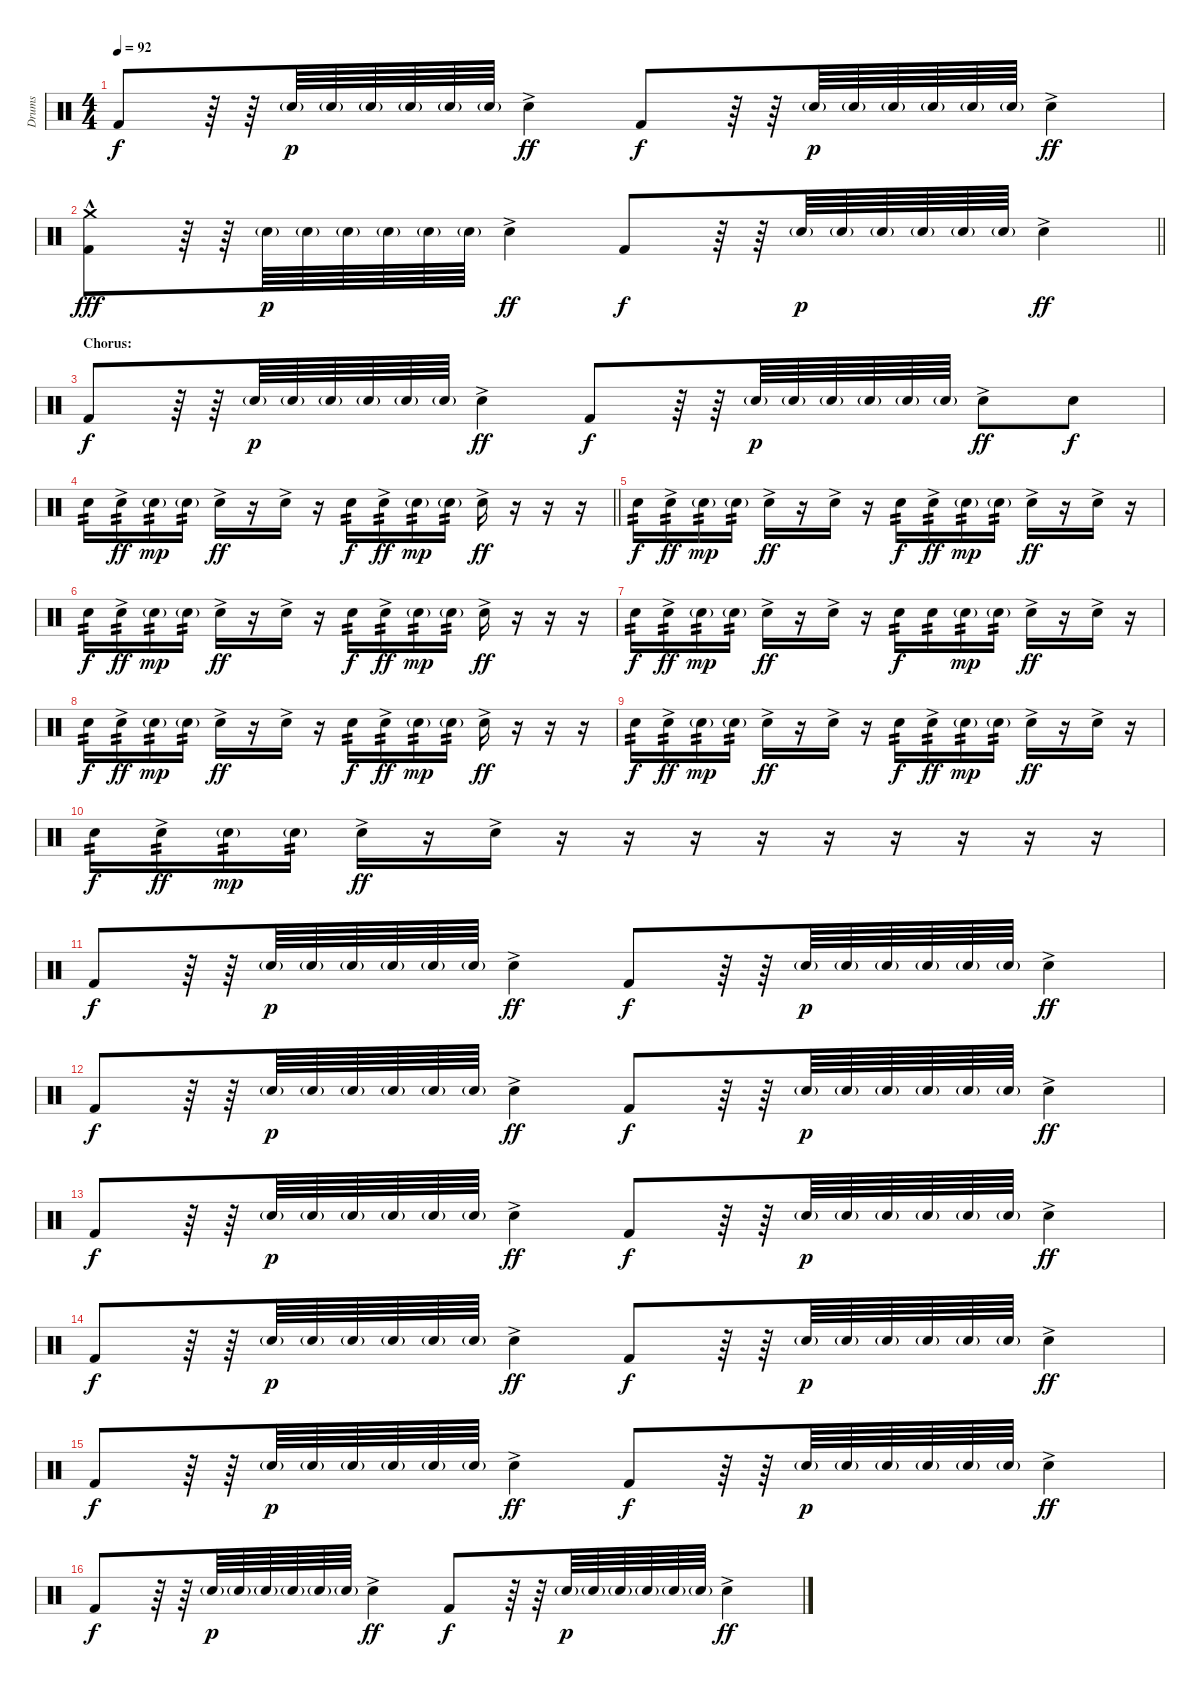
\track ("Drums" "Drums") {instrument percussion}
\staff {score}
\articulation defaults
\ts (4 4)
\tempo 92
\clef neutral
\ks c "Kick (hit) 2".8{dy f}
r.64 r.64 "Snare (hit) 2"{g}.64{dy p} "Snare (hit) 2"{g}.64 "Snare (hit) 2"{g}.64 "Snare (hit) 2"{g}.64 "Snare (hit) 2"{g}.64 "Snare (hit) 2"{g}.64 "Snare (hit) 2"{ac}.4{dy ff} "Kick (hit) 2".8{dy f} r.64 r.64 "Snare (hit) 2"{g}.64{dy p} "Snare (hit) 2"{g}.64 "Snare (hit) 2"{g}.64 "Snare (hit) 2"{g}.64 "Snare (hit) 2"{g}.64 "Snare (hit) 2"{g}.64 "Snare (hit) 2"{ac}.4{dy ff} |
\barLineRight lightlight
("Crash medium (hit)"{hac} "Kick (hit) 2").8{dy fff} r.64 r.64 "Snare (hit) 2"{g}.64{dy p} "Snare (hit) 2"{g}.64 "Snare (hit) 2"{g}.64 "Snare (hit) 2"{g}.64 "Snare (hit) 2"{g}.64 "Snare (hit) 2"{g}.64 "Snare (hit) 2"{ac}.4{dy ff} "Kick (hit) 2".8{dy f} r.64 r.64 "Snare (hit) 2"{g}.64{dy p} "Snare (hit) 2"{g}.64 "Snare (hit) 2"{g}.64 "Snare (hit) 2"{g}.64 "Snare (hit) 2"{g}.64 "Snare (hit) 2"{g}.64 "Snare (hit) 2"{ac}.4{dy ff} |
\section ("" "Chorus:")
"Kick (hit) 2".8{dy f} r.64 r.64 "Snare (hit) 2"{g}.64{dy p} "Snare (hit) 2"{g}.64 "Snare (hit) 2"{g}.64 "Snare (hit) 2"{g}.64 "Snare (hit) 2"{g}.64 "Snare (hit) 2"{g}.64 "Snare (hit) 2"{ac}.4{dy ff} "Kick (hit) 2".8{dy f} r.64 r.64 "Snare (hit) 2"{g}.64{dy p} "Snare (hit) 2"{g}.64 "Snare (hit) 2"{g}.64 "Snare (hit) 2"{g}.64 "Snare (hit) 2"{g}.64 "Snare (hit) 2"{g}.64 "Snare (hit) 2"{ac}.8{dy ff} "Snare (hit) 2".8{dy f} |
\barLineRight lightlight "Snare (hit) 2".16{tp 2} "Snare (hit) 2"{ac}.16{tp 2 dy ff} "Snare (hit) 2"{g}.16{tp 2 dy mp} "Snare (hit) 2"{g}.16{tp 2} "Snare (hit) 2"{ac}.16{dy ff}
r.16 "Snare (hit) 2"{ac}.16 r.16 "Snare (hit) 2".16{tp 2 dy f} "Snare (hit) 2"{ac}.16{tp 2 dy ff} "Snare (hit) 2"{g}.16{tp 2 dy mp} "Snare (hit) 2"{g}.16{tp 2} "Snare (hit) 2"{ac}.16{dy ff} r.16 r.16 r.16 |
"Snare (hit) 2".16{tp 2 dy f} "Snare (hit) 2"{ac}.16{tp 2 dy ff} "Snare (hit) 2"{g}.16{tp 2 dy mp} "Snare (hit) 2"{g}.16{tp 2} "Snare (hit) 2"{ac}.16{dy ff} r.16 "Snare (hit) 2"{ac}.16 r.16 "Snare (hit) 2".16{tp 2 dy f} "Snare (hit) 2"{ac}.16{tp 2 dy ff} "Snare (hit) 2"{g}.16{tp 2 dy mp} "Snare (hit) 2"{g}.16{tp 2} "Snare (hit) 2"{ac}.16{dy ff} r.16 "Snare (hit) 2"{ac}.16 r.16 |
"Snare (hit) 2".16{tp 2 dy f} "Snare (hit) 2"{ac}.16{tp 2 dy ff} "Snare (hit) 2"{g}.16{tp 2 dy mp} "Snare (hit) 2"{g}.16{tp 2} "Snare (hit) 2"{ac}.16{dy ff} r.16 "Snare (hit) 2"{ac}.16 r.16 "Snare (hit) 2".16{tp 2 dy f} "Snare (hit) 2"{ac}.16{tp 2 dy ff} "Snare (hit) 2"{g}.16{tp 2 dy mp} "Snare (hit) 2"{g}.16{tp 2} "Snare (hit) 2"{ac}.16{dy ff} r.16 r.16 r.16 |
"Snare (hit) 2".16{tp 2 dy f} "Snare (hit) 2"{ac}.16{tp 2 dy ff} "Snare (hit) 2"{g}.16{tp 2 dy mp} "Snare (hit) 2"{g}.16{tp 2} "Snare (hit) 2"{ac}.16{dy ff} r.16 "Snare (hit) 2"{ac}.16 r.16 "Snare (hit) 2".16{tp 2 dy f} "Snare (hit) 2".16{tp 2} "Snare (hit) 2"{g}.16{tp 2 dy mp} "Snare (hit) 2"{g}.16{tp 2} "Snare (hit) 2"{ac}.16{dy ff} r.16 "Snare (hit) 2"{ac}.16 r.16 |
"Snare (hit) 2".16{tp 2 dy f} "Snare (hit) 2"{ac}.16{tp 2 dy ff} "Snare (hit) 2"{g}.16{tp 2 dy mp} "Snare (hit) 2"{g}.16{tp 2} "Snare (hit) 2"{ac}.16{dy ff} r.16 "Snare (hit) 2"{ac}.16 r.16 "Snare (hit) 2".16{tp 2 dy f} "Snare (hit) 2"{ac}.16{tp 2 dy ff} "Snare (hit) 2"{g}.16{tp 2 dy mp} "Snare (hit) 2"{g}.16{tp 2} "Snare (hit) 2"{ac}.16{dy ff} r.16 r.16 r.16 |
"Snare (hit) 2".16{tp 2 dy f} "Snare (hit) 2"{ac}.16{tp 2 dy ff} "Snare (hit) 2"{g}.16{tp 2 dy mp} "Snare (hit) 2"{g}.16{tp 2} "Snare (hit) 2"{ac}.16{dy ff} r.16 "Snare (hit) 2"{ac}.16 r.16 "Snare (hit) 2".16{tp 2 dy f} "Snare (hit) 2"{ac}.16{tp 2 dy ff} "Snare (hit) 2"{g}.16{tp 2 dy mp} "Snare (hit) 2"{g}.16{tp 2} "Snare (hit) 2"{ac}.16{dy ff} r.16 "Snare (hit) 2"{ac}.16 r.16 |
"Snare (hit) 2".16{tp 2 dy f} "Snare (hit) 2"{ac}.16{tp 2 dy ff} "Snare (hit) 2"{g}.16{tp 2 dy mp} "Snare (hit) 2"{g}.16{tp 2} "Snare (hit) 2"{ac}.16{dy ff} r.16 "Snare (hit) 2"{ac}.16 r.16 r.16 r.16 r.16 r.16 r.16 r.16 r.16 r.16 |
"Kick (hit) 2".8{dy f} r.64 r.64 "Snare (hit) 2"{g}.64{dy p} "Snare (hit) 2"{g}.64 "Snare (hit) 2"{g}.64 "Snare (hit) 2"{g}.64 "Snare (hit) 2"{g}.64 "Snare (hit) 2"{g}.64 "Snare (hit) 2"{ac}.4{dy ff} "Kick (hit) 2".8{dy f} r.64 r.64 "Snare (hit) 2"{g}.64{dy p} "Snare (hit) 2"{g}.64 "Snare (hit) 2"{g}.64 "Snare (hit) 2"{g}.64 "Snare (hit) 2"{g}.64 "Snare (hit) 2"{g}.64 "Snare (hit) 2"{ac}.4{dy ff} |
"Kick (hit) 2".8{dy f} r.64 r.64 "Snare (hit) 2"{g}.64{dy p} "Snare (hit) 2"{g}.64 "Snare (hit) 2"{g}.64 "Snare (hit) 2"{g}.64 "Snare (hit) 2"{g}.64 "Snare (hit) 2"{g}.64 "Snare (hit) 2"{ac}.4{dy ff} "Kick (hit) 2".8{dy f} r.64 r.64 "Snare (hit) 2"{g}.64{dy p} "Snare (hit) 2"{g}.64 "Snare (hit) 2"{g}.64 "Snare (hit) 2"{g}.64 "Snare (hit) 2"{g}.64 "Snare (hit) 2"{g}.64 "Snare (hit) 2"{ac}.4{dy ff} |
"Kick (hit) 2".8{dy f} r.64 r.64 "Snare (hit) 2"{g}.64{dy p} "Snare (hit) 2"{g}.64 "Snare (hit) 2"{g}.64 "Snare (hit) 2"{g}.64 "Snare (hit) 2"{g}.64 "Snare (hit) 2"{g}.64 "Snare (hit) 2"{ac}.4{dy ff} "Kick (hit) 2".8{dy f} r.64 r.64 "Snare (hit) 2"{g}.64{dy p} "Snare (hit) 2"{g}.64 "Snare (hit) 2"{g}.64 "Snare (hit) 2"{g}.64 "Snare (hit) 2"{g}.64 "Snare (hit) 2"{g}.64 "Snare (hit) 2"{ac}.4{dy ff} |
"Kick (hit) 2".8{dy f} r.64 r.64 "Snare (hit) 2"{g}.64{dy p} "Snare (hit) 2"{g}.64 "Snare (hit) 2"{g}.64 "Snare (hit) 2"{g}.64 "Snare (hit) 2"{g}.64 "Snare (hit) 2"{g}.64 "Snare (hit) 2"{ac}.4{dy ff} "Kick (hit) 2".8{dy f} r.64 r.64 "Snare (hit) 2"{g}.64{dy p} "Snare (hit) 2"{g}.64 "Snare (hit) 2"{g}.64 "Snare (hit) 2"{g}.64 "Snare (hit) 2"{g}.64 "Snare (hit) 2"{g}.64 "Snare (hit) 2"{ac}.4{dy ff} |
"Kick (hit) 2".8{dy f} r.64 r.64 "Snare (hit) 2"{g}.64{dy p} "Snare (hit) 2"{g}.64 "Snare (hit) 2"{g}.64 "Snare (hit) 2"{g}.64 "Snare (hit) 2"{g}.64 "Snare (hit) 2"{g}.64 "Snare (hit) 2"{ac}.4{dy ff} "Kick (hit) 2".8{dy f} r.64 r.64 "Snare (hit) 2"{g}.64{dy p} "Snare (hit) 2"{g}.64 "Snare (hit) 2"{g}.64 "Snare (hit) 2"{g}.64 "Snare (hit) 2"{g}.64 "Snare (hit) 2"{g}.64 "Snare (hit) 2"{ac}.4{dy ff} |
"Kick (hit) 2".8{dy f} r.64 r.64 "Snare (hit) 2"{g}.64{dy p} "Snare (hit) 2"{g}.64 "Snare (hit) 2"{g}.64 "Snare (hit) 2"{g}.64 "Snare (hit) 2"{g}.64 "Snare (hit) 2"{g}.64 "Snare (hit) 2"{ac}.4{dy ff} "Kick (hit) 2".8{dy f} r.64 r.64 "Snare (hit) 2"{g}.64{dy p} "Snare (hit) 2"{g}.64 "Snare (hit) 2"{g}.64 "Snare (hit) 2"{g}.64 "Snare (hit) 2"{g}.64 "Snare (hit) 2"{g}.64 "Snare (hit) 2"{ac}.4{dy ff}
